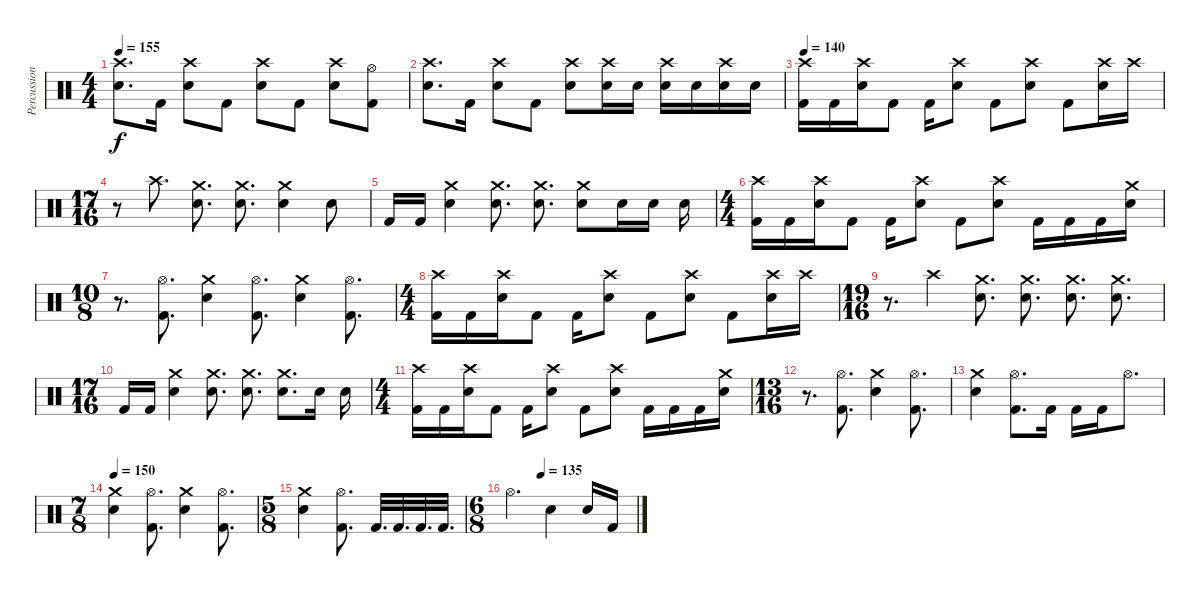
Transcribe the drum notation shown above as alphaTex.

\track ("Percussion" "Percussion") {instrument percussion}
\staff
\articulation defaults
\ts (4 4)
\tempo 155
\clef neutral
\ks c
("Crash high (hit)" "Electric Snare (hit)").8{d dy f} "Kick (hit) 2".16 ("Crash high (hit)" "Electric Snare (hit)").8 "Kick (hit) 2".8 ("Crash high (hit)" "Electric Snare (hit)").8 "Kick (hit) 2".8 ("Crash high (hit)" "Electric Snare (hit)").8 ("Hi-Hat (open)" "Kick (hit) 2").8 |
("Crash high (hit)" "Electric Snare (hit)").8{d} "Kick (hit) 2".16 ("Crash high (hit)" "Electric Snare (hit)").8 "Kick (hit) 2".8 ("Crash high (hit)" "Electric Snare (hit)").8 ("Crash high (hit)" "Electric Snare (hit)").16 "Electric Snare (hit)".16 ("Crash high (hit)" "Electric Snare (hit)").16 "Electric Snare (hit)".16 ("Crash high (hit)" "Electric Snare (hit)").16 "Electric Snare (hit)".16 |
\tempo 140
("Crash high (hit)" "Kick (hit) 2").16 "Kick (hit) 2".16 ("Crash high (hit)" "Electric Snare (hit)").16 "Kick (hit) 2".8 "Kick (hit) 2".16 ("Crash high (hit)" "Electric Snare (hit)").8 "Kick (hit) 2".8 ("Crash high (hit)" "Electric Snare (hit)").8 "Kick (hit) 2".8 ("Crash high (hit)" "Electric Snare (hit)").16 "Crash high (hit)".16 |
\ts (17 16)
r.8 "Crash high (hit)".8{d} ("Crash medium (hit)" "Electric Snare (hit)").8{d} ("Crash medium (hit)" "Electric Snare (hit)").8{d} ("Crash medium (hit)" "Electric Snare (hit)").4 "Electric Snare (hit)".8 |
"Kick (hit) 2".16 "Kick (hit) 2".16 ("Crash medium (hit)" "Electric Snare (hit)").4 ("Crash medium (hit)" "Electric Snare (hit)").8{d} ("Crash medium (hit)" "Electric Snare (hit)").8{d} ("Crash medium (hit)" "Electric Snare (hit)").8 "Electric Snare (hit)".16 "Electric Snare (hit)".16 "Electric Snare (hit)".16 |
\ts (4 4)
("Crash high (hit)" "Kick (hit) 2").16 "Kick (hit) 2".16 ("Crash high (hit)" "Electric Snare (hit)").16 "Kick (hit) 2".8 "Kick (hit) 2".16 ("Crash high (hit)" "Electric Snare (hit)").8 "Kick (hit) 2".8 ("Crash high (hit)" "Electric Snare (hit)").8 "Kick (hit) 2".16 "Kick (hit) 2".16 "Kick (hit) 2".16 ("Crash medium (hit)" "Electric Snare (hit)").16 |
\ts (10 8)
r.8{d} ("Hi-Hat (open)" "Kick (hit) 2").8{d} ("Crash medium (hit)" "Electric Snare (hit)").4 ("Hi-Hat (open)" "Kick (hit) 2").8{d} ("Crash medium (hit)" "Electric Snare (hit)").4 ("Hi-Hat (open)" "Kick (hit) 2").8{d} |
\ts (4 4)
("Crash high (hit)" "Kick (hit) 2").16 "Kick (hit) 2".16 ("Crash high (hit)" "Electric Snare (hit)").16 "Kick (hit) 2".8 "Kick (hit) 2".16 ("Crash high (hit)" "Electric Snare (hit)").8 "Kick (hit) 2".8 ("Crash high (hit)" "Electric Snare (hit)").8 "Kick (hit) 2".8 ("Crash high (hit)" "Electric Snare (hit)").16 "Crash high (hit)".16 |
\ts (19 16)
r.8{d} "Crash high (hit)".4 ("Crash medium (hit)" "Electric Snare (hit)").8{d} ("Crash medium (hit)" "Electric Snare (hit)").8{d} ("Crash medium (hit)" "Electric Snare (hit)").8{d} ("Crash medium (hit)" "Electric Snare (hit)").8{d} |
\ts (17 16)
"Kick (hit) 2".16 "Kick (hit) 2".16 ("Crash medium (hit)" "Electric Snare (hit)").4 ("Crash medium (hit)" "Electric Snare (hit)").8{d} ("Crash medium (hit)" "Electric Snare (hit)").8{d} ("Crash medium (hit)" "Electric Snare (hit)").8{d} "Electric Snare (hit)".16 "Electric Snare (hit)".16 |
\ts (4 4)
("Crash high (hit)" "Kick (hit) 2").16 "Kick (hit) 2".16 ("Crash high (hit)" "Electric Snare (hit)").16 "Kick (hit) 2".8 "Kick (hit) 2".16 ("Crash high (hit)" "Electric Snare (hit)").8 "Kick (hit) 2".8 ("Crash high (hit)" "Electric Snare (hit)").8 "Kick (hit) 2".16 "Kick (hit) 2".16 "Kick (hit) 2".16 ("Crash medium (hit)" "Electric Snare (hit)").16 |
\ts (13 16)
r.8{d} ("Hi-Hat (open)" "Kick (hit) 2").8{d} ("Crash medium (hit)" "Electric Snare (hit)").4 ("Hi-Hat (open)" "Kick (hit) 2").8{d} |
("Crash medium (hit)" "Electric Snare (hit)").4 ("Hi-Hat (open)" "Kick (hit) 2").8{d} "Kick (hit) 2".16 "Kick (hit) 2".16 "Kick (hit) 2".16 "Hi-Hat (open)".8{d} |
\ts (7 8)
\tempo 150
("Crash medium (hit)" "Electric Snare (hit)").4 ("Hi-Hat (open)" "Kick (hit) 2").8{d} ("Crash medium (hit)" "Electric Snare (hit)").4 ("Hi-Hat (open)" "Kick (hit) 2").8{d} |
\ts (5 8)
("Crash medium (hit)" "Electric Snare (hit)").4 ("Hi-Hat (open)" "Kick (hit) 2").8{d} "Kick (hit) 2".32{d} "Kick (hit) 2".32{d} "Kick (hit) 2".32{d} "Kick (hit) 2".32{d} |
\ts (6 8)
\tempo (135 0.25)
"Hi-Hat (open)".4{d} "Electric Snare (hit)".4 "Electric Snare (hit)".16 "Kick (hit) 2".16
